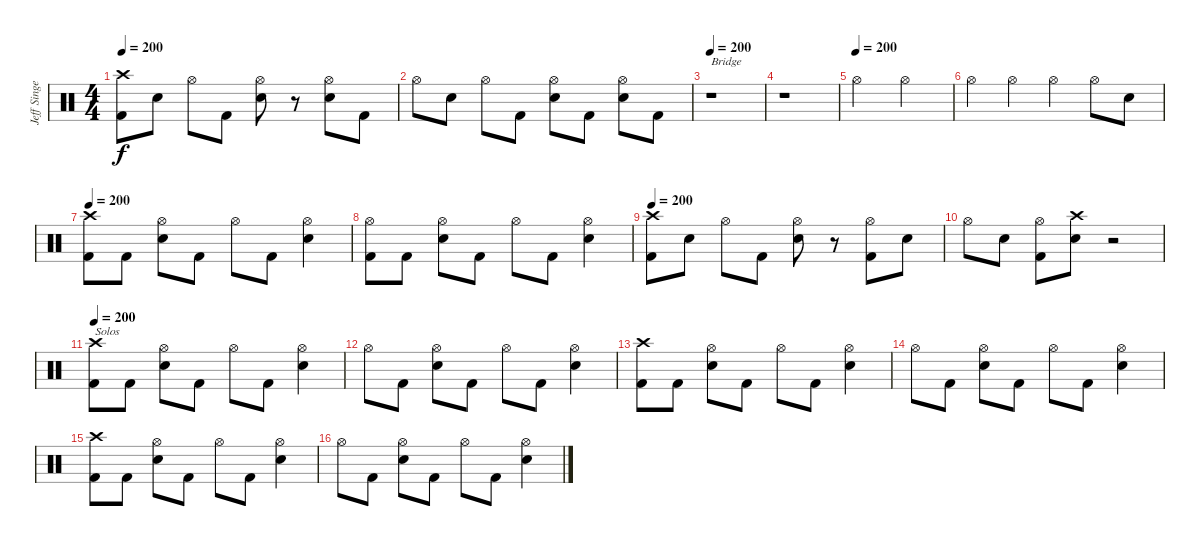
\track ("Jeff Singer" "Jeff Singe") {instrument percussion}
\staff {score}
\articulation defaults
\ts (4 4)
\tempo 200
\clef neutral
\ks c
("Crash high (hit)" "Kick (hit) 2").8{dy f} "Snare (hit) 2".8 "Hi-Hat (open)".8 "Kick (hit) 2".8 ("Hi-Hat (open)" "Snare (hit) 2").8 r.8 ("Hi-Hat (open)" "Snare (hit) 2").8 "Kick (hit) 2".8 |
"Hi-Hat (open)".8 "Snare (hit) 2".8 "Hi-Hat (open)".8 "Kick (hit) 2".8 ("Hi-Hat (open)" "Snare (hit) 2").8 "Kick (hit) 2".8 ("Hi-Hat (open)" "Snare (hit) 2").8 "Kick (hit) 2".8 |
\tempo 200
r.1{txt "Bridge"} |
r.1 |
\tempo (200)
"Hi-Hat (open)".2 "Hi-Hat (open)".2 |
"Hi-Hat (open)".4 "Hi-Hat (open)".4 "Hi-Hat (open)".4 "Hi-Hat (open)".8 "Snare (hit) 2".8 |
\tempo 200
("Crash high (hit)" "Kick (hit) 2").8 "Kick (hit) 2".8 ("Hi-Hat (open)" "Snare (hit) 2").8 "Kick (hit) 2".8 "Hi-Hat (open)".8 "Kick (hit) 2".8 ("Hi-Hat (open)" "Snare (hit) 2").4 |
("Hi-Hat (open)" "Kick (hit) 2").8 "Kick (hit) 2".8 ("Hi-Hat (open)" "Snare (hit) 2").8 "Kick (hit) 2".8 "Hi-Hat (open)".8 "Kick (hit) 2".8 ("Hi-Hat (open)" "Snare (hit) 2").4 |
\tempo 200
("Crash high (hit)" "Kick (hit) 2").8 "Snare (hit) 2".8 "Hi-Hat (open)".8 "Kick (hit) 2".8 ("Hi-Hat (open)" "Snare (hit) 2").8 r.8 ("Hi-Hat (open)" "Kick (hit) 2").8 "Snare (hit) 2".8 |
"Hi-Hat (open)".8 "Snare (hit) 2".8 ("Hi-Hat (open)" "Kick (hit) 2").8 ("Crash high (hit)" "Snare (hit) 2").8 r.2 |
\tempo 200
("Crash high (hit)" "Kick (hit) 2").8{txt "Solos"} "Kick (hit) 2".8 ("Hi-Hat (open)" "Snare (hit) 2").8 "Kick (hit) 2".8 "Hi-Hat (open)".8 "Kick (hit) 2".8 ("Hi-Hat (open)" "Snare (hit) 2").4 |
"Hi-Hat (open)".8 "Kick (hit) 2".8 ("Hi-Hat (open)" "Snare (hit) 2").8 "Kick (hit) 2".8 "Hi-Hat (open)".8 "Kick (hit) 2".8 ("Hi-Hat (open)" "Snare (hit) 2").4 |
("Crash high (hit)" "Kick (hit) 2").8 "Kick (hit) 2".8 ("Hi-Hat (open)" "Snare (hit) 2").8 "Kick (hit) 2".8 "Hi-Hat (open)".8 "Kick (hit) 2".8 ("Hi-Hat (open)" "Snare (hit) 2").4 |
"Hi-Hat (open)".8 "Kick (hit) 2".8 ("Hi-Hat (open)" "Snare (hit) 2").8 "Kick (hit) 2".8 "Hi-Hat (open)".8 "Kick (hit) 2".8 ("Hi-Hat (open)" "Snare (hit) 2").4 |
("Crash high (hit)" "Kick (hit) 2").8 "Kick (hit) 2".8 ("Hi-Hat (open)" "Snare (hit) 2").8 "Kick (hit) 2".8 "Hi-Hat (open)".8 "Kick (hit) 2".8 ("Hi-Hat (open)" "Snare (hit) 2").4 |
"Hi-Hat (open)".8 "Kick (hit) 2".8 ("Hi-Hat (open)" "Snare (hit) 2").8 "Kick (hit) 2".8 "Hi-Hat (open)".8 "Kick (hit) 2".8 ("Hi-Hat (open)" "Snare (hit) 2").4
